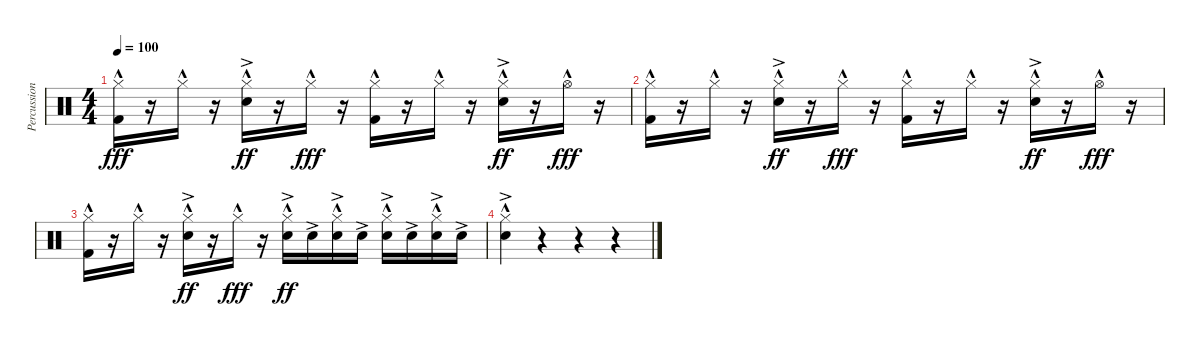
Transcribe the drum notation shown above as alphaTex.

\track ("Percussion" "Percussion") {instrument percussion}
\staff {score}
\articulation defaults
\ts (4 4)
\tempo 100
\clef neutral
\ks c
("Hi-Hat (closed)"{hac} "Kick (hit) 2"{hac}).16{dy fff} r.16 "Hi-Hat (closed)"{hac}.16 r.16 ("Hi-Hat (closed)"{hac} "Snare (hit) 2"{ac}).16{dy ff} r.16 "Hi-Hat (closed)"{hac}.16{dy fff} r.16 ("Hi-Hat (closed)"{hac} "Kick (hit) 2"{hac}).16 r.16 "Hi-Hat (closed)"{hac}.16 r.16 ("Hi-Hat (closed)"{hac} "Snare (hit) 2"{ac}).16{dy ff} r.16 "Hi-Hat (open)"{hac}.16{dy fff} r.16 |
("Hi-Hat (closed)"{hac} "Kick (hit) 2"{hac}).16 r.16 "Hi-Hat (closed)"{hac}.16 r.16 ("Hi-Hat (closed)"{hac} "Snare (hit) 2"{ac}).16{dy ff} r.16 "Hi-Hat (closed)"{hac}.16{dy fff} r.16 ("Hi-Hat (closed)"{hac} "Kick (hit) 2"{hac}).16 r.16 "Hi-Hat (closed)"{hac}.16 r.16 ("Hi-Hat (closed)"{hac} "Snare (hit) 2"{ac}).16{dy ff} r.16 "Hi-Hat (open)"{hac}.16{dy fff} r.16 |
("Hi-Hat (closed)"{hac} "Kick (hit) 2"{hac}).16 r.16 "Hi-Hat (closed)"{hac}.16 r.16 ("Hi-Hat (closed)"{hac} "Snare (hit) 2"{ac}).16{dy ff} r.16 "Hi-Hat (closed)"{hac}.16{dy fff} r.16 ("Hi-Hat (closed)"{hac} "Snare (hit) 2"{ac}).16{dy ff} "Snare (hit) 2"{ac}.16 ("Hi-Hat (closed)"{hac} "Snare (hit) 2"{ac}).16 "Snare (hit) 2"{ac}.16 ("Hi-Hat (closed)"{hac} "Snare (hit) 2"{ac}).16 "Snare (hit) 2"{ac}.16 ("Hi-Hat (closed)"{hac} "Snare (hit) 2"{ac}).16 "Snare (hit) 2"{ac}.16 |
("Hi-Hat (closed)"{hac} "Snare (hit) 2"{ac}).4 r.4 r.4 r.4
